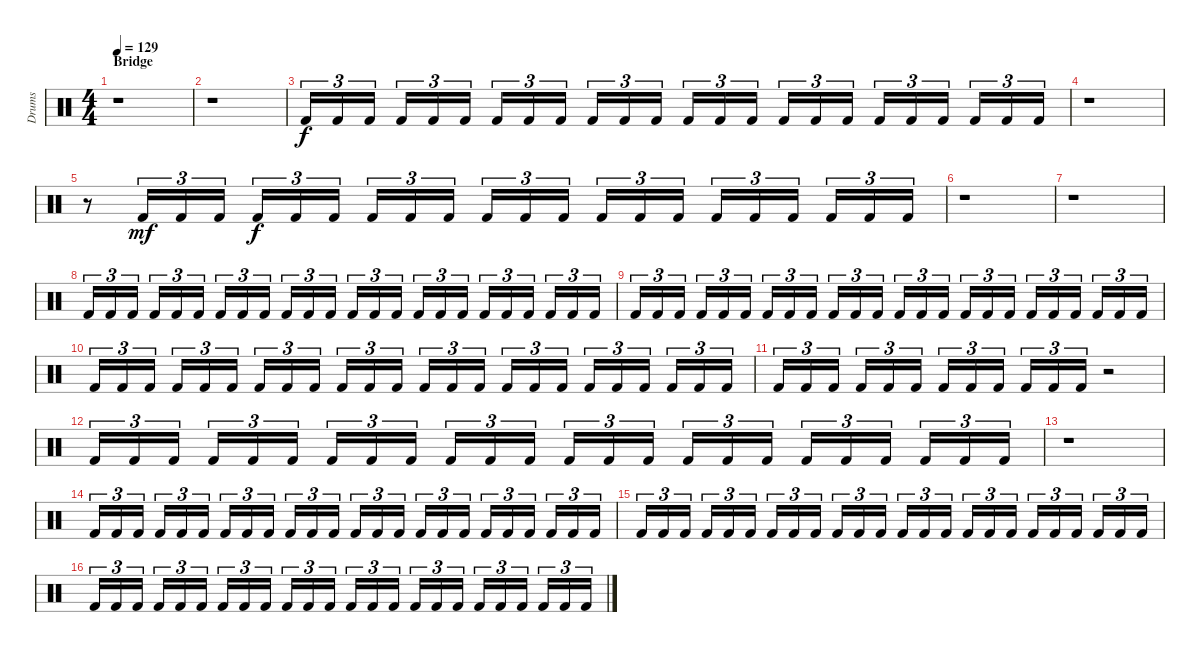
\track ("Drums" "Drums") {instrument percussion}
\staff {score}
\articulation defaults
\ts (4 4)
\section ("" "Bridge ")
\tempo 129
\clef neutral
\ks c
r.1{dy f} |
r.1 |
"Kick (hit) 2".16{tu (3 2)} "Kick (hit) 2".16{tu (3 2)} "Kick (hit) 2".16{tu (3 2) beam splitsecondary} "Kick (hit) 2".16{tu (3 2)} "Kick (hit) 2".16{tu (3 2)} "Kick (hit) 2".16{tu (3 2)} "Kick (hit) 2".16{tu (3 2)} "Kick (hit) 2".16{tu (3 2)} "Kick (hit) 2".16{tu (3 2) beam splitsecondary} "Kick (hit) 2".16{tu (3 2)} "Kick (hit) 2".16{tu (3 2)} "Kick (hit) 2".16{tu (3 2)} "Kick (hit) 2".16{tu (3 2)} "Kick (hit) 2".16{tu (3 2)} "Kick (hit) 2".16{tu (3 2) beam splitsecondary} "Kick (hit) 2".16{tu (3 2)} "Kick (hit) 2".16{tu (3 2)} "Kick (hit) 2".16{tu (3 2)} "Kick (hit) 2".16{tu (3 2)} "Kick (hit) 2".16{tu (3 2)} "Kick (hit) 2".16{tu (3 2) beam splitsecondary} "Kick (hit) 2".16{tu (3 2)} "Kick (hit) 2".16{tu (3 2)} "Kick (hit) 2".16{tu (3 2)} |
r.1 |
r.8 "Kick (hit) 2".16{tu (3 2) dy mf} "Kick (hit) 2".16{tu (3 2)} "Kick (hit) 2".16{tu (3 2)} "Kick (hit) 2".16{tu (3 2) dy f} "Kick (hit) 2".16{tu (3 2)} "Kick (hit) 2".16{tu (3 2) beam splitsecondary} "Kick (hit) 2".16{tu (3 2)} "Kick (hit) 2".16{tu (3 2)} "Kick (hit) 2".16{tu (3 2)} "Kick (hit) 2".16{tu (3 2)} "Kick (hit) 2".16{tu (3 2)} "Kick (hit) 2".16{tu (3 2) beam splitsecondary} "Kick (hit) 2".16{tu (3 2)} "Kick (hit) 2".16{tu (3 2)} "Kick (hit) 2".16{tu (3 2)} "Kick (hit) 2".16{tu (3 2)} "Kick (hit) 2".16{tu (3 2)} "Kick (hit) 2".16{tu (3 2) beam splitsecondary} "Kick (hit) 2".16{tu (3 2)} "Kick (hit) 2".16{tu (3 2)} "Kick (hit) 2".16{tu (3 2)} |
r.1 |
r.1 |
"Kick (hit) 2".16{tu (3 2)} "Kick (hit) 2".16{tu (3 2)} "Kick (hit) 2".16{tu (3 2) beam splitsecondary} "Kick (hit) 2".16{tu (3 2)} "Kick (hit) 2".16{tu (3 2)} "Kick (hit) 2".16{tu (3 2)} "Kick (hit) 2".16{tu (3 2)} "Kick (hit) 2".16{tu (3 2)} "Kick (hit) 2".16{tu (3 2) beam splitsecondary} "Kick (hit) 2".16{tu (3 2)} "Kick (hit) 2".16{tu (3 2)} "Kick (hit) 2".16{tu (3 2)} "Kick (hit) 2".16{tu (3 2)} "Kick (hit) 2".16{tu (3 2)} "Kick (hit) 2".16{tu (3 2) beam splitsecondary} "Kick (hit) 2".16{tu (3 2)} "Kick (hit) 2".16{tu (3 2)} "Kick (hit) 2".16{tu (3 2)} "Kick (hit) 2".16{tu (3 2)} "Kick (hit) 2".16{tu (3 2)} "Kick (hit) 2".16{tu (3 2) beam splitsecondary} "Kick (hit) 2".16{tu (3 2)} "Kick (hit) 2".16{tu (3 2)} "Kick (hit) 2".16{tu (3 2)} |
"Kick (hit) 2".16{tu (3 2)} "Kick (hit) 2".16{tu (3 2)} "Kick (hit) 2".16{tu (3 2) beam splitsecondary} "Kick (hit) 2".16{tu (3 2)} "Kick (hit) 2".16{tu (3 2)} "Kick (hit) 2".16{tu (3 2)} "Kick (hit) 2".16{tu (3 2)} "Kick (hit) 2".16{tu (3 2)} "Kick (hit) 2".16{tu (3 2) beam splitsecondary} "Kick (hit) 2".16{tu (3 2)} "Kick (hit) 2".16{tu (3 2)} "Kick (hit) 2".16{tu (3 2)} "Kick (hit) 2".16{tu (3 2)} "Kick (hit) 2".16{tu (3 2)} "Kick (hit) 2".16{tu (3 2) beam splitsecondary} "Kick (hit) 2".16{tu (3 2)} "Kick (hit) 2".16{tu (3 2)} "Kick (hit) 2".16{tu (3 2)} "Kick (hit) 2".16{tu (3 2)} "Kick (hit) 2".16{tu (3 2)} "Kick (hit) 2".16{tu (3 2) beam splitsecondary} "Kick (hit) 2".16{tu (3 2)} "Kick (hit) 2".16{tu (3 2)} "Kick (hit) 2".16{tu (3 2)} |
"Kick (hit) 2".16{tu (3 2)} "Kick (hit) 2".16{tu (3 2)} "Kick (hit) 2".16{tu (3 2) beam splitsecondary} "Kick (hit) 2".16{tu (3 2)} "Kick (hit) 2".16{tu (3 2)} "Kick (hit) 2".16{tu (3 2)} "Kick (hit) 2".16{tu (3 2)} "Kick (hit) 2".16{tu (3 2)} "Kick (hit) 2".16{tu (3 2) beam splitsecondary} "Kick (hit) 2".16{tu (3 2)} "Kick (hit) 2".16{tu (3 2)} "Kick (hit) 2".16{tu (3 2)} "Kick (hit) 2".16{tu (3 2)} "Kick (hit) 2".16{tu (3 2)} "Kick (hit) 2".16{tu (3 2) beam splitsecondary} "Kick (hit) 2".16{tu (3 2)} "Kick (hit) 2".16{tu (3 2)} "Kick (hit) 2".16{tu (3 2)} "Kick (hit) 2".16{tu (3 2)} "Kick (hit) 2".16{tu (3 2)} "Kick (hit) 2".16{tu (3 2) beam splitsecondary} "Kick (hit) 2".16{tu (3 2)} "Kick (hit) 2".16{tu (3 2)} "Kick (hit) 2".16{tu (3 2)} |
"Kick (hit) 2".16{tu (3 2)} "Kick (hit) 2".16{tu (3 2)} "Kick (hit) 2".16{tu (3 2) beam splitsecondary} "Kick (hit) 2".16{tu (3 2)} "Kick (hit) 2".16{tu (3 2)} "Kick (hit) 2".16{tu (3 2)} "Kick (hit) 2".16{tu (3 2)} "Kick (hit) 2".16{tu (3 2)} "Kick (hit) 2".16{tu (3 2) beam splitsecondary} "Kick (hit) 2".16{tu (3 2)} "Kick (hit) 2".16{tu (3 2)} "Kick (hit) 2".16{tu (3 2)} r.2 |
"Kick (hit) 2".16{tu (3 2)} "Kick (hit) 2".16{tu (3 2)} "Kick (hit) 2".16{tu (3 2) beam splitsecondary} "Kick (hit) 2".16{tu (3 2)} "Kick (hit) 2".16{tu (3 2)} "Kick (hit) 2".16{tu (3 2)} "Kick (hit) 2".16{tu (3 2)} "Kick (hit) 2".16{tu (3 2)} "Kick (hit) 2".16{tu (3 2) beam splitsecondary} "Kick (hit) 2".16{tu (3 2)} "Kick (hit) 2".16{tu (3 2)} "Kick (hit) 2".16{tu (3 2)} "Kick (hit) 2".16{tu (3 2)} "Kick (hit) 2".16{tu (3 2)} "Kick (hit) 2".16{tu (3 2) beam splitsecondary} "Kick (hit) 2".16{tu (3 2)} "Kick (hit) 2".16{tu (3 2)} "Kick (hit) 2".16{tu (3 2)} "Kick (hit) 2".16{tu (3 2)} "Kick (hit) 2".16{tu (3 2)} "Kick (hit) 2".16{tu (3 2) beam splitsecondary} "Kick (hit) 2".16{tu (3 2)} "Kick (hit) 2".16{tu (3 2)} "Kick (hit) 2".16{tu (3 2)} |
r.1 |
"Kick (hit) 2".16{tu (3 2)} "Kick (hit) 2".16{tu (3 2)} "Kick (hit) 2".16{tu (3 2) beam splitsecondary} "Kick (hit) 2".16{tu (3 2)} "Kick (hit) 2".16{tu (3 2)} "Kick (hit) 2".16{tu (3 2)} "Kick (hit) 2".16{tu (3 2)} "Kick (hit) 2".16{tu (3 2)} "Kick (hit) 2".16{tu (3 2) beam splitsecondary} "Kick (hit) 2".16{tu (3 2)} "Kick (hit) 2".16{tu (3 2)} "Kick (hit) 2".16{tu (3 2)} "Kick (hit) 2".16{tu (3 2)} "Kick (hit) 2".16{tu (3 2)} "Kick (hit) 2".16{tu (3 2) beam splitsecondary} "Kick (hit) 2".16{tu (3 2)} "Kick (hit) 2".16{tu (3 2)} "Kick (hit) 2".16{tu (3 2)} "Kick (hit) 2".16{tu (3 2)} "Kick (hit) 2".16{tu (3 2)} "Kick (hit) 2".16{tu (3 2) beam splitsecondary} "Kick (hit) 2".16{tu (3 2)} "Kick (hit) 2".16{tu (3 2)} "Kick (hit) 2".16{tu (3 2)} |
"Kick (hit) 2".16{tu (3 2)} "Kick (hit) 2".16{tu (3 2)} "Kick (hit) 2".16{tu (3 2) beam splitsecondary} "Kick (hit) 2".16{tu (3 2)} "Kick (hit) 2".16{tu (3 2)} "Kick (hit) 2".16{tu (3 2)} "Kick (hit) 2".16{tu (3 2)} "Kick (hit) 2".16{tu (3 2)} "Kick (hit) 2".16{tu (3 2) beam splitsecondary} "Kick (hit) 2".16{tu (3 2)} "Kick (hit) 2".16{tu (3 2)} "Kick (hit) 2".16{tu (3 2)} "Kick (hit) 2".16{tu (3 2)} "Kick (hit) 2".16{tu (3 2)} "Kick (hit) 2".16{tu (3 2) beam splitsecondary} "Kick (hit) 2".16{tu (3 2)} "Kick (hit) 2".16{tu (3 2)} "Kick (hit) 2".16{tu (3 2)} "Kick (hit) 2".16{tu (3 2)} "Kick (hit) 2".16{tu (3 2)} "Kick (hit) 2".16{tu (3 2) beam splitsecondary} "Kick (hit) 2".16{tu (3 2)} "Kick (hit) 2".16{tu (3 2)} "Kick (hit) 2".16{tu (3 2)} |
"Kick (hit) 2".16{tu (3 2)} "Kick (hit) 2".16{tu (3 2)} "Kick (hit) 2".16{tu (3 2) beam splitsecondary} "Kick (hit) 2".16{tu (3 2)} "Kick (hit) 2".16{tu (3 2)} "Kick (hit) 2".16{tu (3 2)} "Kick (hit) 2".16{tu (3 2)} "Kick (hit) 2".16{tu (3 2)} "Kick (hit) 2".16{tu (3 2) beam splitsecondary} "Kick (hit) 2".16{tu (3 2)} "Kick (hit) 2".16{tu (3 2)} "Kick (hit) 2".16{tu (3 2)} "Kick (hit) 2".16{tu (3 2)} "Kick (hit) 2".16{tu (3 2)} "Kick (hit) 2".16{tu (3 2) beam splitsecondary} "Kick (hit) 2".16{tu (3 2)} "Kick (hit) 2".16{tu (3 2)} "Kick (hit) 2".16{tu (3 2)} "Kick (hit) 2".16{tu (3 2)} "Kick (hit) 2".16{tu (3 2)} "Kick (hit) 2".16{tu (3 2) beam splitsecondary} "Kick (hit) 2".16{tu (3 2)} "Kick (hit) 2".16{tu (3 2)} "Kick (hit) 2".16{tu (3 2)}
